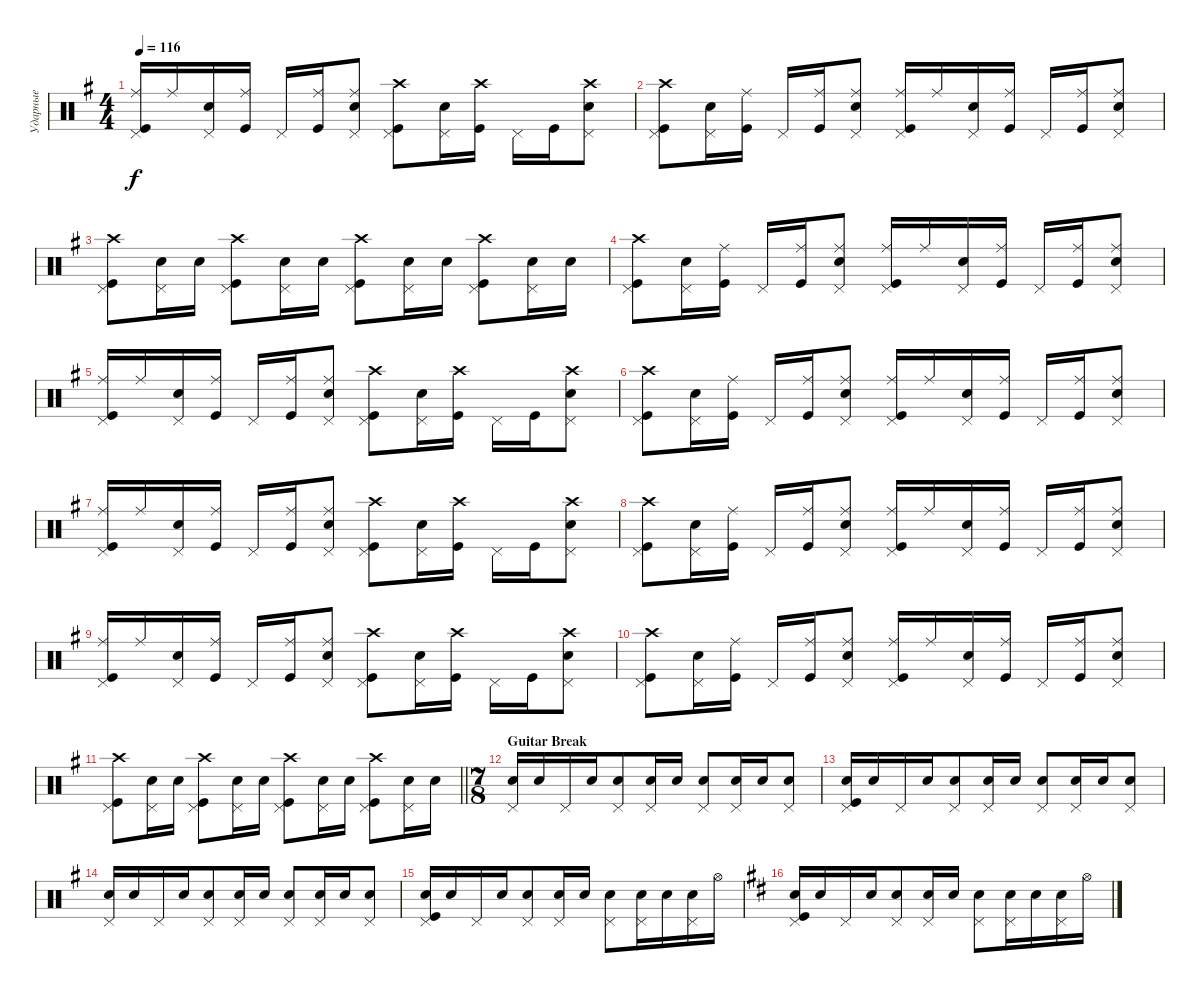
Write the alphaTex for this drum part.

\track ("Ударные" "Ударные") {instrument percussion}
\staff {score}
\articulation defaults
\ts (4 4)
\tempo 116
\clef neutral
\ks eminor
("Kick (hit)" "Ride (middle)" "Pedal Hi-Hat (hit)").16{dy f} "Ride (middle)".16 ("Snare (hit) 2" "Pedal Hi-Hat (hit)").16 ("Kick (hit)" "Ride (middle)").16 "Pedal Hi-Hat (hit)".16 ("Ride (middle)" "Kick (hit)").16 ("Snare (hit) 2" "Ride (middle)" "Pedal Hi-Hat (hit)").8 ("Kick (hit)" "Crash high (hit)" "Pedal Hi-Hat (hit)").8 ("Snare (hit) 2" "Pedal Hi-Hat (hit)").16 ("Kick (hit)" "Crash high (hit)").16 "Pedal Hi-Hat (hit)".16 "Kick (hit)".16 ("Crash high (hit)" "Snare (hit) 2" "Pedal Hi-Hat (hit)").8 |
("Kick (hit)" "Crash high (hit)" "Pedal Hi-Hat (hit)").8 ("Snare (hit) 2" "Pedal Hi-Hat (hit)").16 ("Kick (hit)" "Ride (middle)").16 "Pedal Hi-Hat (hit)".16 ("Ride (middle)" "Kick (hit)").16 ("Snare (hit) 2" "Ride (middle)" "Pedal Hi-Hat (hit)").8 ("Kick (hit)" "Ride (middle)" "Pedal Hi-Hat (hit)").16 "Ride (middle)".16 ("Snare (hit) 2" "Pedal Hi-Hat (hit)").16 ("Kick (hit)" "Ride (middle)").16 "Pedal Hi-Hat (hit)".16 ("Ride (middle)" "Kick (hit)").16 ("Ride (middle)" "Snare (hit) 2" "Pedal Hi-Hat (hit)").8 |
("Kick (hit)" "Crash high (hit)" "Pedal Hi-Hat (hit)").8 ("Snare (hit) 2" "Pedal Hi-Hat (hit)").16 "Snare (hit) 2".16 ("Kick (hit)" "Crash high (hit)" "Pedal Hi-Hat (hit)").8 ("Snare (hit) 2" "Pedal Hi-Hat (hit)").16 "Snare (hit) 2".16 ("Kick (hit)" "Crash high (hit)" "Pedal Hi-Hat (hit)").8 ("Snare (hit) 2" "Pedal Hi-Hat (hit)").16 "Snare (hit) 2".16 ("Kick (hit)" "Crash high (hit)" "Pedal Hi-Hat (hit)").8 ("Snare (hit) 2" "Pedal Hi-Hat (hit)").16 "Snare (hit) 2".16 |
("Kick (hit)" "Crash high (hit)" "Pedal Hi-Hat (hit)").8 ("Snare (hit) 2" "Pedal Hi-Hat (hit)").16 ("Kick (hit)" "Ride (middle)").16 "Pedal Hi-Hat (hit)".16 ("Ride (middle)" "Kick (hit)").16 ("Snare (hit) 2" "Ride (middle)" "Pedal Hi-Hat (hit)").8 ("Kick (hit)" "Ride (middle)" "Pedal Hi-Hat (hit)").16 "Ride (middle)".16 ("Snare (hit) 2" "Pedal Hi-Hat (hit)").16 ("Kick (hit)" "Ride (middle)").16 "Pedal Hi-Hat (hit)".16 ("Ride (middle)" "Kick (hit)").16 ("Ride (middle)" "Snare (hit) 2" "Pedal Hi-Hat (hit)").8 |
("Kick (hit)" "Ride (middle)" "Pedal Hi-Hat (hit)").16 "Ride (middle)".16 ("Snare (hit) 2" "Pedal Hi-Hat (hit)").16 ("Kick (hit)" "Ride (middle)").16 "Pedal Hi-Hat (hit)".16 ("Ride (middle)" "Kick (hit)").16 ("Snare (hit) 2" "Ride (middle)" "Pedal Hi-Hat (hit)").8 ("Kick (hit)" "Crash high (hit)" "Pedal Hi-Hat (hit)").8 ("Snare (hit) 2" "Pedal Hi-Hat (hit)").16 ("Kick (hit)" "Crash high (hit)").16 "Pedal Hi-Hat (hit)".16 "Kick (hit)".16 ("Crash high (hit)" "Snare (hit) 2" "Pedal Hi-Hat (hit)").8 |
("Kick (hit)" "Crash high (hit)" "Pedal Hi-Hat (hit)").8 ("Snare (hit) 2" "Pedal Hi-Hat (hit)").16 ("Kick (hit)" "Ride (middle)").16 "Pedal Hi-Hat (hit)".16 ("Ride (middle)" "Kick (hit)").16 ("Snare (hit) 2" "Ride (middle)" "Pedal Hi-Hat (hit)").8 ("Kick (hit)" "Ride (middle)" "Pedal Hi-Hat (hit)").16 "Ride (middle)".16 ("Snare (hit) 2" "Pedal Hi-Hat (hit)").16 ("Kick (hit)" "Ride (middle)").16 "Pedal Hi-Hat (hit)".16 ("Ride (middle)" "Kick (hit)").16 ("Ride (middle)" "Snare (hit) 2" "Pedal Hi-Hat (hit)").8 |
("Kick (hit)" "Ride (middle)" "Pedal Hi-Hat (hit)").16 "Ride (middle)".16 ("Snare (hit) 2" "Pedal Hi-Hat (hit)").16 ("Kick (hit)" "Ride (middle)").16 "Pedal Hi-Hat (hit)".16 ("Ride (middle)" "Kick (hit)").16 ("Snare (hit) 2" "Ride (middle)" "Pedal Hi-Hat (hit)").8 ("Kick (hit)" "Crash high (hit)" "Pedal Hi-Hat (hit)").8 ("Snare (hit) 2" "Pedal Hi-Hat (hit)").16 ("Kick (hit)" "Crash high (hit)").16 "Pedal Hi-Hat (hit)".16 "Kick (hit)".16 ("Crash high (hit)" "Snare (hit) 2" "Pedal Hi-Hat (hit)").8 |
("Kick (hit)" "Crash high (hit)" "Pedal Hi-Hat (hit)").8 ("Snare (hit) 2" "Pedal Hi-Hat (hit)").16 ("Kick (hit)" "Ride (middle)").16 "Pedal Hi-Hat (hit)".16 ("Ride (middle)" "Kick (hit)").16 ("Snare (hit) 2" "Ride (middle)" "Pedal Hi-Hat (hit)").8 ("Kick (hit)" "Ride (middle)" "Pedal Hi-Hat (hit)").16 "Ride (middle)".16 ("Snare (hit) 2" "Pedal Hi-Hat (hit)").16 ("Kick (hit)" "Ride (middle)").16 "Pedal Hi-Hat (hit)".16 ("Ride (middle)" "Kick (hit)").16 ("Ride (middle)" "Snare (hit) 2" "Pedal Hi-Hat (hit)").8 |
("Kick (hit)" "Ride (middle)" "Pedal Hi-Hat (hit)").16 "Ride (middle)".16 ("Snare (hit) 2" "Pedal Hi-Hat (hit)").16 ("Kick (hit)" "Ride (middle)").16 "Pedal Hi-Hat (hit)".16 ("Ride (middle)" "Kick (hit)").16 ("Snare (hit) 2" "Ride (middle)" "Pedal Hi-Hat (hit)").8 ("Kick (hit)" "Crash high (hit)" "Pedal Hi-Hat (hit)").8 ("Snare (hit) 2" "Pedal Hi-Hat (hit)").16 ("Kick (hit)" "Crash high (hit)").16 "Pedal Hi-Hat (hit)".16 "Kick (hit)".16 ("Crash high (hit)" "Snare (hit) 2" "Pedal Hi-Hat (hit)").8 |
("Kick (hit)" "Crash high (hit)" "Pedal Hi-Hat (hit)").8 ("Snare (hit) 2" "Pedal Hi-Hat (hit)").16 ("Kick (hit)" "Ride (middle)").16 "Pedal Hi-Hat (hit)".16 ("Ride (middle)" "Kick (hit)").16 ("Snare (hit) 2" "Ride (middle)" "Pedal Hi-Hat (hit)").8 ("Kick (hit)" "Ride (middle)" "Pedal Hi-Hat (hit)").16 "Ride (middle)".16 ("Snare (hit) 2" "Pedal Hi-Hat (hit)").16 ("Kick (hit)" "Ride (middle)").16 "Pedal Hi-Hat (hit)".16 ("Ride (middle)" "Kick (hit)").16 ("Ride (middle)" "Snare (hit) 2" "Pedal Hi-Hat (hit)").8 |
\barLineRight lightlight
("Kick (hit)" "Crash high (hit)" "Pedal Hi-Hat (hit)").8 ("Snare (hit) 2" "Pedal Hi-Hat (hit)").16 "Snare (hit) 2".16 ("Kick (hit)" "Crash high (hit)" "Pedal Hi-Hat (hit)").8 ("Snare (hit) 2" "Pedal Hi-Hat (hit)").16 "Snare (hit) 2".16 ("Kick (hit)" "Crash high (hit)" "Pedal Hi-Hat (hit)").8 ("Snare (hit) 2" "Pedal Hi-Hat (hit)").16 "Snare (hit) 2".16 ("Kick (hit)" "Crash high (hit)" "Pedal Hi-Hat (hit)").8 ("Snare (hit) 2" "Pedal Hi-Hat (hit)").16 "Snare (hit) 2".16 |
\ts (7 8)
\section ("" "Guitar Break")
("Pedal Hi-Hat (hit)" "Snare (hit) 2").16 "Snare (hit) 2".16 "Pedal Hi-Hat (hit)".16 "Snare (hit) 2".16 ("Snare (hit) 2" "Pedal Hi-Hat (hit)").8 ("Snare (hit) 2" "Pedal Hi-Hat (hit)").16 "Snare (hit) 2".16 ("Snare (hit) 2" "Pedal Hi-Hat (hit)").8 ("Snare (hit) 2" "Pedal Hi-Hat (hit)").16 "Snare (hit) 2".16 ("Snare (hit) 2" "Pedal Hi-Hat (hit)").8 |
("Pedal Hi-Hat (hit)" "Snare (hit) 2" "Kick (hit)").16 "Snare (hit) 2".16 "Pedal Hi-Hat (hit)".16 "Snare (hit) 2".16 ("Snare (hit) 2" "Pedal Hi-Hat (hit)").8 ("Snare (hit) 2" "Pedal Hi-Hat (hit)").16 "Snare (hit) 2".16 ("Snare (hit) 2" "Pedal Hi-Hat (hit)").8 ("Snare (hit) 2" "Pedal Hi-Hat (hit)").16 "Snare (hit) 2".16 ("Snare (hit) 2" "Pedal Hi-Hat (hit)").8 |
("Pedal Hi-Hat (hit)" "Snare (hit) 2").16 "Snare (hit) 2".16 "Pedal Hi-Hat (hit)".16 "Snare (hit) 2".16 ("Snare (hit) 2" "Pedal Hi-Hat (hit)").8 ("Snare (hit) 2" "Pedal Hi-Hat (hit)").16 "Snare (hit) 2".16 ("Snare (hit) 2" "Pedal Hi-Hat (hit)").8 ("Snare (hit) 2" "Pedal Hi-Hat (hit)").16 "Snare (hit) 2".16 ("Snare (hit) 2" "Pedal Hi-Hat (hit)").8 |
("Pedal Hi-Hat (hit)" "Snare (hit) 2" "Kick (hit)").16 "Snare (hit) 2".16 "Pedal Hi-Hat (hit)".16 "Snare (hit) 2".16 ("Snare (hit) 2" "Pedal Hi-Hat (hit)").8 ("Snare (hit) 2" "Pedal Hi-Hat (hit)").16 "Snare (hit) 2".16 ("Snare (hit) 2" "Pedal Hi-Hat (hit)").8 ("Snare (hit) 2" "Pedal Hi-Hat (hit)").16 "Snare (hit) 2".16 ("Snare (hit) 2" "Pedal Hi-Hat (hit)").16 "Hi-Hat (open)".16 |
\ks bminor
("Pedal Hi-Hat (hit)" "Snare (hit) 2" "Kick (hit)").16 "Snare (hit) 2".16 "Pedal Hi-Hat (hit)".16 "Snare (hit) 2".16 ("Snare (hit) 2" "Pedal Hi-Hat (hit)").8 ("Snare (hit) 2" "Pedal Hi-Hat (hit)").16 "Snare (hit) 2".16 ("Snare (hit) 2" "Pedal Hi-Hat (hit)").8 ("Snare (hit) 2" "Pedal Hi-Hat (hit)").16 "Snare (hit) 2".16 ("Snare (hit) 2" "Pedal Hi-Hat (hit)").16 "Hi-Hat (open)".16
